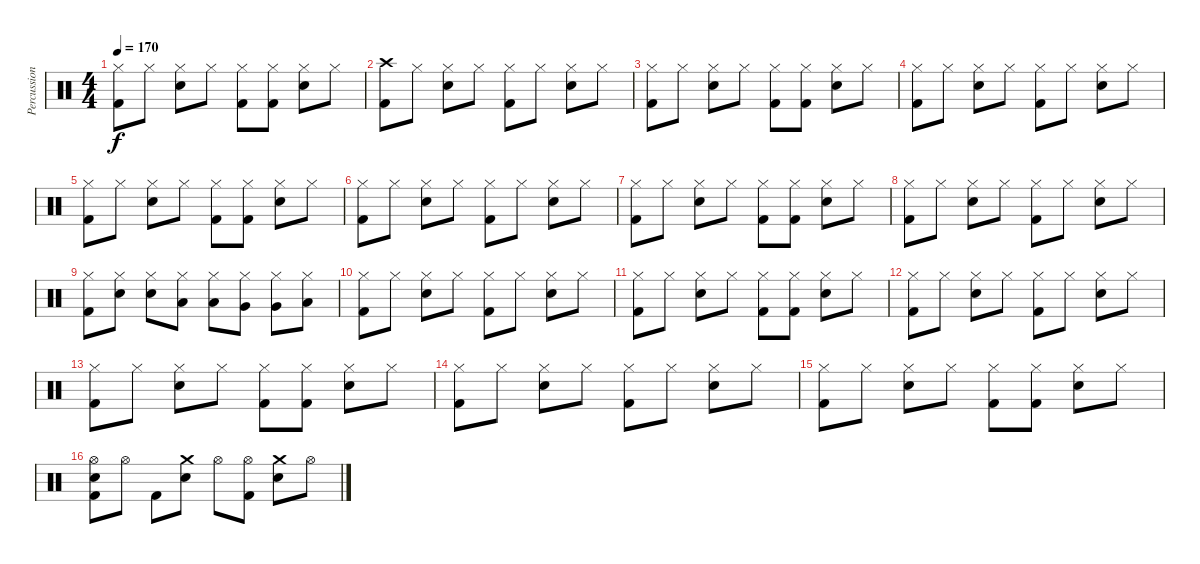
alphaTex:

\track ("Percussion" "Percussion") {instrument percussion}
\staff {score}
\articulation defaults
\ts (4 4)
\tempo 170
\clef neutral
\ks c
("Hi-Hat (closed)" "Kick (hit) 2").8{dy f} "Hi-Hat (closed)".8 ("Hi-Hat (closed)" "Snare (hit) 2").8 "Hi-Hat (closed)".8 ("Hi-Hat (closed)" "Kick (hit) 2").8 ("Hi-Hat (closed)" "Kick (hit) 2").8 ("Hi-Hat (closed)" "Snare (hit) 2").8 "Hi-Hat (closed)".8 |
("Crash high (hit)" "Kick (hit) 2").8 "Hi-Hat (closed)".8 ("Hi-Hat (closed)" "Snare (hit) 2").8 "Hi-Hat (closed)".8 ("Hi-Hat (closed)" "Kick (hit) 2").8 "Hi-Hat (closed)".8 ("Hi-Hat (closed)" "Snare (hit) 2").8 "Hi-Hat (closed)".8 |
("Hi-Hat (closed)" "Kick (hit) 2").8 "Hi-Hat (closed)".8 ("Hi-Hat (closed)" "Snare (hit) 2").8 "Hi-Hat (closed)".8 ("Hi-Hat (closed)" "Kick (hit) 2").8 ("Hi-Hat (closed)" "Kick (hit) 2").8 ("Hi-Hat (closed)" "Snare (hit) 2").8 "Hi-Hat (closed)".8 |
("Hi-Hat (closed)" "Kick (hit) 2").8 "Hi-Hat (closed)".8 ("Hi-Hat (closed)" "Snare (hit) 2").8 "Hi-Hat (closed)".8 ("Hi-Hat (closed)" "Kick (hit) 2").8 "Hi-Hat (closed)".8 ("Hi-Hat (closed)" "Snare (hit) 2").8 "Hi-Hat (closed)".8 |
("Hi-Hat (closed)" "Kick (hit) 2").8 "Hi-Hat (closed)".8 ("Hi-Hat (closed)" "Snare (hit) 2").8 "Hi-Hat (closed)".8 ("Hi-Hat (closed)" "Kick (hit) 2").8 ("Hi-Hat (closed)" "Kick (hit) 2").8 ("Hi-Hat (closed)" "Snare (hit) 2").8 "Hi-Hat (closed)".8 |
("Hi-Hat (closed)" "Kick (hit) 2").8 "Hi-Hat (closed)".8 ("Hi-Hat (closed)" "Snare (hit) 2").8 "Hi-Hat (closed)".8 ("Hi-Hat (closed)" "Kick (hit) 2").8 "Hi-Hat (closed)".8 ("Hi-Hat (closed)" "Snare (hit) 2").8 "Hi-Hat (closed)".8 |
("Hi-Hat (closed)" "Kick (hit) 2").8 "Hi-Hat (closed)".8 ("Hi-Hat (closed)" "Snare (hit) 2").8 "Hi-Hat (closed)".8 ("Hi-Hat (closed)" "Kick (hit) 2").8 ("Hi-Hat (closed)" "Kick (hit) 2").8 ("Hi-Hat (closed)" "Snare (hit) 2").8 "Hi-Hat (closed)".8 |
("Hi-Hat (closed)" "Kick (hit) 2").8 "Hi-Hat (closed)".8 ("Hi-Hat (closed)" "Snare (hit) 2").8 "Hi-Hat (closed)".8 ("Hi-Hat (closed)" "Kick (hit) 2").8 "Hi-Hat (closed)".8 ("Hi-Hat (closed)" "Snare (hit) 2").8 "Hi-Hat (closed)".8 |
("Hi-Hat (closed)" "Kick (hit) 2").8 ("Hi-Hat (closed)" "Snare (hit) 2").8 ("Hi-Hat (closed)" "Snare (hit) 2").8 ("Hi-Hat (closed)" "Low Tom (hit)").8 ("Hi-Hat (closed)" "Low Tom (hit)").8 ("Hi-Hat (closed)" "Very Low Tom (hit)").8 ("Hi-Hat (closed)" "Very Low Tom (hit)").8 ("Hi-Hat (closed)" "Low Floor Tom (hit)").8 |
("Hi-Hat (closed)" "Kick (hit) 2").8 "Hi-Hat (closed)".8 ("Hi-Hat (closed)" "Snare (hit) 2").8 "Hi-Hat (closed)".8 ("Hi-Hat (closed)" "Kick (hit) 2").8 "Hi-Hat (closed)".8 ("Hi-Hat (closed)" "Snare (hit) 2").8 "Hi-Hat (closed)".8 |
("Hi-Hat (closed)" "Kick (hit) 2").8 "Hi-Hat (closed)".8 ("Hi-Hat (closed)" "Snare (hit) 2").8 "Hi-Hat (closed)".8 ("Hi-Hat (closed)" "Kick (hit) 2").8 ("Hi-Hat (closed)" "Kick (hit) 2").8 ("Hi-Hat (closed)" "Snare (hit) 2").8 "Hi-Hat (closed)".8 |
("Hi-Hat (closed)" "Kick (hit) 2").8 "Hi-Hat (closed)".8 ("Hi-Hat (closed)" "Snare (hit) 2").8 "Hi-Hat (closed)".8 ("Hi-Hat (closed)" "Kick (hit) 2").8 "Hi-Hat (closed)".8 ("Hi-Hat (closed)" "Snare (hit) 2").8 "Hi-Hat (closed)".8 |
("Hi-Hat (closed)" "Kick (hit) 2").8 "Hi-Hat (closed)".8 ("Hi-Hat (closed)" "Snare (hit) 2").8 "Hi-Hat (closed)".8 ("Hi-Hat (closed)" "Kick (hit) 2").8 ("Hi-Hat (closed)" "Kick (hit) 2").8 ("Hi-Hat (closed)" "Snare (hit) 2").8 "Hi-Hat (closed)".8 |
("Hi-Hat (closed)" "Kick (hit) 2").8 "Hi-Hat (closed)".8 ("Hi-Hat (closed)" "Snare (hit) 2").8 "Hi-Hat (closed)".8 ("Hi-Hat (closed)" "Kick (hit) 2").8 "Hi-Hat (closed)".8 ("Hi-Hat (closed)" "Snare (hit) 2").8 "Hi-Hat (closed)".8 |
("Hi-Hat (closed)" "Kick (hit) 2").8 "Hi-Hat (closed)".8 ("Hi-Hat (closed)" "Snare (hit) 2").8 "Hi-Hat (closed)".8 ("Hi-Hat (closed)" "Kick (hit) 2").8 ("Hi-Hat (closed)" "Kick (hit) 2").8 ("Hi-Hat (closed)" "Snare (hit) 2").8 "Hi-Hat (closed)".8 |
("Hi-Hat (open)" "Snare (hit) 2" "Kick (hit) 2").8 "Hi-Hat (open)".8 "Kick (hit) 2".8 ("Crash medium (hit)" "Snare (hit) 2").8 "Hi-Hat (open)".8 ("Hi-Hat (open)" "Kick (hit) 2").8 ("Crash medium (hit)" "Snare (hit) 2").8 "Hi-Hat (open)".8
